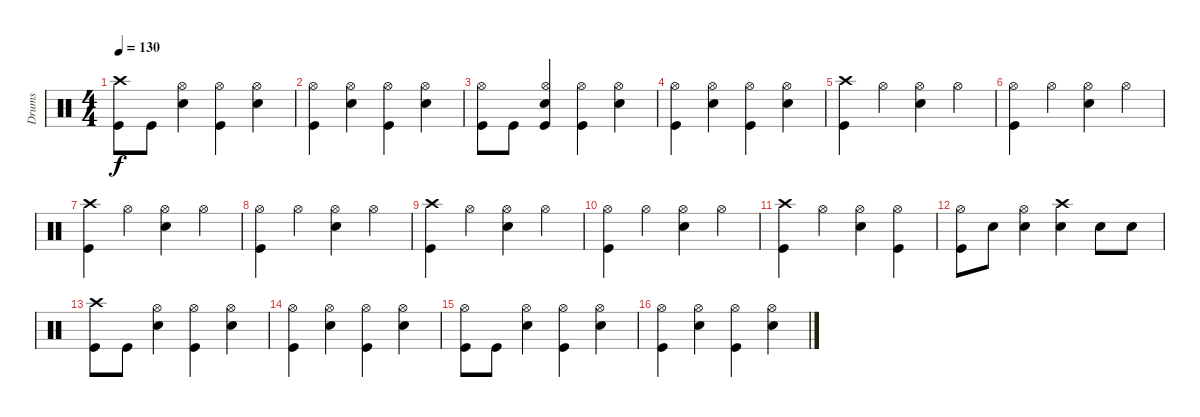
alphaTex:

\track ("Drums" "Drums") {instrument percussion}
\staff {score}
\articulation defaults
\ts (4 4)
\tempo 130
\clef neutral
\ks c
("Crash high (hit)" "Kick (hit)").8{dy f} "Kick (hit)".8 ("Hi-Hat (open)" "Snare (hit) 2").4 ("Hi-Hat (open)" "Kick (hit)").4 ("Hi-Hat (open)" "Snare (hit) 2").4 |
("Hi-Hat (open)" "Kick (hit)").4 ("Hi-Hat (open)" "Snare (hit) 2").4 ("Hi-Hat (open)" "Kick (hit)").4 ("Hi-Hat (open)" "Snare (hit) 2").4 |
("Hi-Hat (open)" "Kick (hit)").8 "Kick (hit)".8 ("Hi-Hat (open)" "Snare (hit) 2" "Kick (hit)").4 ("Hi-Hat (open)" "Kick (hit)").4 ("Hi-Hat (open)" "Snare (hit) 2").4 |
("Hi-Hat (open)" "Kick (hit)").4 ("Hi-Hat (open)" "Snare (hit) 2").4 ("Hi-Hat (open)" "Kick (hit)").4 ("Hi-Hat (open)" "Snare (hit) 2").4 |
("Crash high (hit)" "Kick (hit)").4 "Hi-Hat (open)".4 ("Hi-Hat (open)" "Snare (hit) 2").4 "Hi-Hat (open)".4 |
("Hi-Hat (open)" "Kick (hit)").4 "Hi-Hat (open)".4 ("Hi-Hat (open)" "Snare (hit) 2").4 "Hi-Hat (open)".4 |
("Crash high (hit)" "Kick (hit)").4 "Hi-Hat (open)".4 ("Hi-Hat (open)" "Snare (hit) 2").4 "Hi-Hat (open)".4 |
("Hi-Hat (open)" "Kick (hit)").4 "Hi-Hat (open)".4 ("Hi-Hat (open)" "Snare (hit) 2").4 "Hi-Hat (open)".4 |
("Crash high (hit)" "Kick (hit)").4 "Hi-Hat (open)".4 ("Hi-Hat (open)" "Snare (hit) 2").4 "Hi-Hat (open)".4 |
("Hi-Hat (open)" "Kick (hit)").4 "Hi-Hat (open)".4 ("Hi-Hat (open)" "Snare (hit) 2").4 "Hi-Hat (open)".4 |
("Crash high (hit)" "Kick (hit)").4 "Hi-Hat (open)".4 ("Hi-Hat (open)" "Snare (hit) 2").4 ("Hi-Hat (open)" "Kick (hit)").4 |
("Hi-Hat (open)" "Kick (hit)").8 "Snare (hit) 2".8 ("Hi-Hat (open)" "Snare (hit) 2").4 ("Crash high (hit)" "Snare (hit) 2").4 "Snare (hit) 2".8 "Snare (hit) 2".8 |
("Crash high (hit)" "Kick (hit)").8 "Kick (hit)".8 ("Hi-Hat (open)" "Snare (hit) 2").4 ("Hi-Hat (open)" "Kick (hit)").4 ("Hi-Hat (open)" "Snare (hit) 2").4 |
("Hi-Hat (open)" "Kick (hit)").4 ("Hi-Hat (open)" "Snare (hit) 2").4 ("Hi-Hat (open)" "Kick (hit)").4 ("Hi-Hat (open)" "Snare (hit) 2").4 |
("Hi-Hat (open)" "Kick (hit)").8 "Kick (hit)".8 ("Hi-Hat (open)" "Snare (hit) 2").4 ("Hi-Hat (open)" "Kick (hit)").4 ("Hi-Hat (open)" "Snare (hit) 2").4 |
("Hi-Hat (open)" "Kick (hit)").4 ("Hi-Hat (open)" "Snare (hit) 2").4 ("Hi-Hat (open)" "Kick (hit)").4 ("Hi-Hat (open)" "Snare (hit) 2").4
